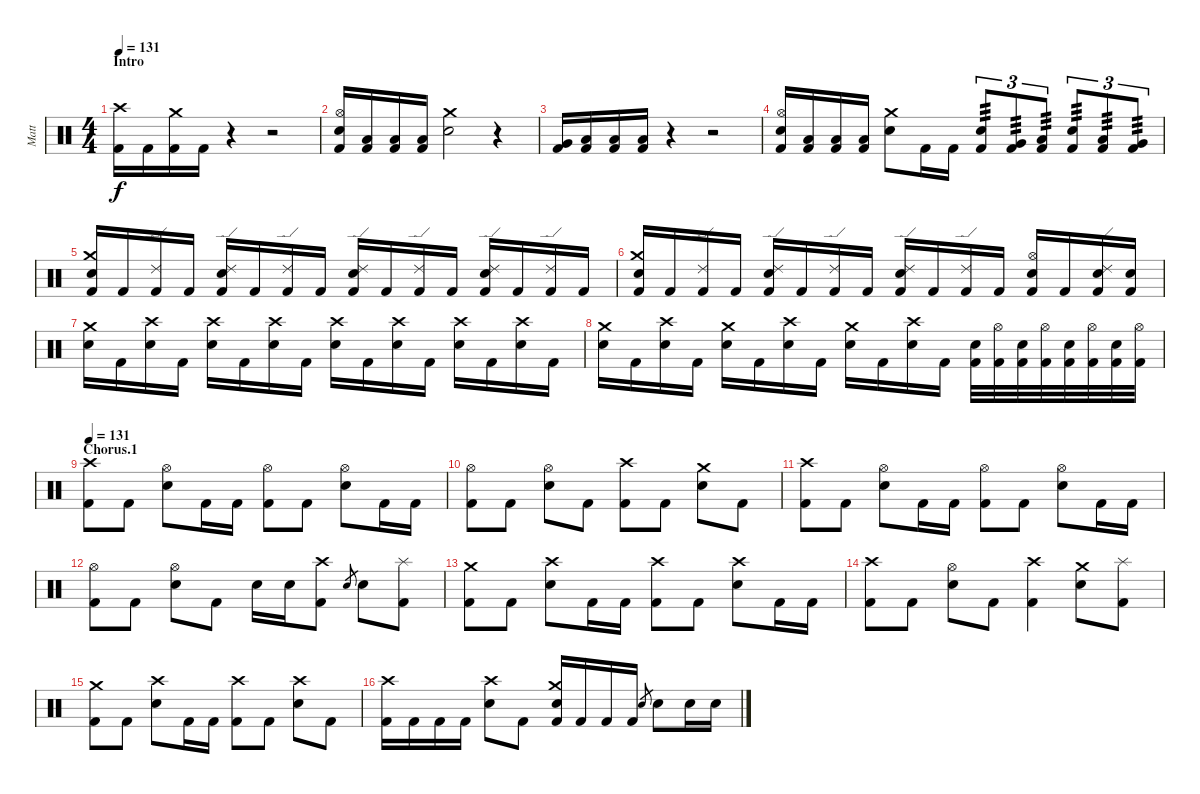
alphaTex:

\track ("Matt" "Matt") {instrument percussion}
\staff {score}
\articulation defaults
\ts (4 4)
\section ("" "Intro")
\tempo 131
\tempo 126
\tempo 131
\clef neutral
\ks c
("Crash high (hit)" "Kick (hit) 2").16{dy f} "Kick (hit) 2".16 ("Crash medium (hit)" "Kick (hit) 2").16 "Kick (hit) 2".16 r.4 r.2 |
("Hi-Hat (open)" "Electric Snare (hit)" "Kick (hit) 2").16 ("Low Floor Tom (hit)" "Kick (hit) 2").16 ("Low Floor Tom (hit)" "Kick (hit) 2").16 ("Low Floor Tom (hit)" "Kick (hit) 2").16 ("Crash medium (hit)" "Electric Snare (hit)").2 r.4 |
("Very Low Tom (hit)" "Kick (hit) 2").16 ("Low Floor Tom (hit)" "Kick (hit) 2").16 ("Low Floor Tom (hit)" "Kick (hit) 2").16 ("Low Floor Tom (hit)" "Kick (hit) 2").16 r.4 r.2 |
("Hi-Hat (open)" "Electric Snare (hit)" "Kick (hit) 2").16 ("Low Floor Tom (hit)" "Kick (hit) 2").16 ("Low Floor Tom (hit)" "Kick (hit) 2").16 ("Low Floor Tom (hit)" "Kick (hit) 2").16 ("Crash medium (hit)" "Electric Snare (hit)").8 "Kick (hit) 2".16 "Kick (hit) 2".16 ("Electric Snare (hit)" "Kick (hit) 2").8{tu (3 2) tp 3} ("Very Low Tom (hit)" "Kick (hit) 2").8{tu (3 2) tp 3} ("Low Floor Tom (hit)" "Kick (hit) 2").8{tu (3 2) tp 3} ("Electric Snare (hit)" "Kick (hit) 2").8{tu (3 2) tp 3} ("Low Tom (hit)" "Kick (hit) 2").8{tu (3 2) tp 3} ("Very Low Tom (hit)" "Kick (hit) 2").8{tu (3 2) tp 3} |
("Crash medium (hit)" "Electric Snare (hit)" "Kick (hit) 2").16 "Kick (hit) 2".16 ("Ride (edge) 2" "Kick (hit) 2").16 "Kick (hit) 2".16 ("Ride (edge) 2" "Electric Snare (hit)" "Kick (hit) 2").16 "Kick (hit) 2".16 ("Ride (edge) 2" "Kick (hit) 2").16 "Kick (hit) 2".16 ("Ride (edge) 2" "Electric Snare (hit)" "Kick (hit) 2").16 "Kick (hit) 2".16 ("Ride (edge) 2" "Kick (hit) 2").16 "Kick (hit) 2".16 ("Ride (edge) 2" "Electric Snare (hit)" "Kick (hit) 2").16 "Kick (hit) 2".16 ("Ride (edge) 2" "Kick (hit) 2").16 "Kick (hit) 2".16 |
("Crash medium (hit)" "Electric Snare (hit)" "Kick (hit) 2").16 "Kick (hit) 2".16 ("Ride (edge) 2" "Kick (hit) 2").16 "Kick (hit) 2".16 ("Ride (edge) 2" "Electric Snare (hit)" "Kick (hit) 2").16 "Kick (hit) 2".16 ("Ride (edge) 2" "Kick (hit) 2").16 "Kick (hit) 2".16 ("Ride (edge) 2" "Electric Snare (hit)" "Kick (hit) 2").16 "Kick (hit) 2".16 ("Ride (edge) 2" "Kick (hit) 2").16 "Kick (hit) 2".16 ("Hi-Hat (open)" "Electric Snare (hit)" "Kick (hit) 2").16 "Kick (hit) 2".16 ("Ride (edge) 2" "Electric Snare (hit)" "Kick (hit) 2").16 ("Electric Snare (hit)" "Kick (hit) 2").16 |
("Crash medium (hit)" "Electric Snare (hit)").16 "Kick (hit) 2".16 ("Crash high (hit)" "Electric Snare (hit)").16 "Kick (hit) 2".16 ("Crash high (hit)" "Electric Snare (hit)").16 "Kick (hit) 2".16 ("Crash high (hit)" "Electric Snare (hit)").16 "Kick (hit) 2".16 ("Crash high (hit)" "Electric Snare (hit)").16 "Kick (hit) 2".16 ("Crash high (hit)" "Electric Snare (hit)").16 "Kick (hit) 2".16 ("Crash high (hit)" "Electric Snare (hit)").16 "Kick (hit) 2".16 ("Crash high (hit)" "Electric Snare (hit)").16 "Kick (hit) 2".16 |
("Crash medium (hit)" "Electric Snare (hit)").16 "Kick (hit) 2".16 ("Crash high (hit)" "Electric Snare (hit)").16 "Kick (hit) 2".16 ("Crash medium (hit)" "Electric Snare (hit)").16 "Kick (hit) 2".16 ("Crash high (hit)" "Electric Snare (hit)").16 "Kick (hit) 2".16 ("Crash medium (hit)" "Electric Snare (hit)").16 "Kick (hit) 2".16 ("Crash high (hit)" "Electric Snare (hit)").16 "Kick (hit) 2".16 ("Electric Snare (hit)" "Kick (hit) 2").32 ("Hi-Hat (open)" "Kick (hit) 2").32 ("Electric Snare (hit)" "Kick (hit) 2").32 ("Hi-Hat (open)" "Kick (hit) 2").32 ("Electric Snare (hit)" "Kick (hit) 2").32 ("Hi-Hat (open)" "Kick (hit) 2").32 ("Electric Snare (hit)" "Kick (hit) 2").32 ("Hi-Hat (open)" "Kick (hit) 2").32 |
\section ("" "Chorus.1 ")
\tempo 131
("Crash high (hit)" "Kick (hit) 2").8 "Kick (hit) 2".8 ("Hi-Hat (open)" "Electric Snare (hit)").8 "Kick (hit) 2".16 "Kick (hit) 2".16 ("Hi-Hat (open)" "Kick (hit) 2").8 "Kick (hit) 2".8 ("Hi-Hat (open)" "Electric Snare (hit)").8 "Kick (hit) 2".16 "Kick (hit) 2".16 |
("Hi-Hat (open)" "Kick (hit) 2").8 "Kick (hit) 2".8 ("Hi-Hat (open)" "Electric Snare (hit)").8 "Kick (hit) 2".8 ("Crash high (hit)" "Kick (hit) 2").8 "Kick (hit) 2".8 ("Crash medium (hit)" "Electric Snare (hit)").8 "Kick (hit) 2".8 |
("Crash high (hit)" "Kick (hit) 2").8 "Kick (hit) 2".8 ("Hi-Hat (open)" "Electric Snare (hit)").8 "Kick (hit) 2".16 "Kick (hit) 2".16 ("Hi-Hat (open)" "Kick (hit) 2").8 "Kick (hit) 2".8 ("Hi-Hat (open)" "Electric Snare (hit)").8 "Kick (hit) 2".16 "Kick (hit) 2".16 |
("Hi-Hat (open)" "Kick (hit) 2").8 "Kick (hit) 2".8 ("Hi-Hat (open)" "Electric Snare (hit)").8 "Kick (hit) 2".8 "Electric Snare (hit)".16 "Electric Snare (hit)".16 ("Crash high (hit)" "Kick (hit) 2").8 "Electric Snare (hit)".8{gr} "Electric Snare (hit)".8 ("Splash (hit)" "Kick (hit) 2").8 |
("Crash medium (hit)" "Kick (hit) 2").8 "Kick (hit) 2".8 ("Crash high (hit)" "Electric Snare (hit)").8 "Kick (hit) 2".16 "Kick (hit) 2".16 ("Crash high (hit)" "Kick (hit) 2").8 "Kick (hit) 2".8 ("Crash high (hit)" "Electric Snare (hit)").8 "Kick (hit) 2".16 "Kick (hit) 2".16 |
("Crash high (hit)" "Kick (hit) 2").8 "Kick (hit) 2".8 ("Hi-Hat (open)" "Electric Snare (hit)").8 "Kick (hit) 2".8 ("Crash high (hit)" "Kick (hit) 2").4 ("Crash medium (hit)" "Electric Snare (hit)").8 ("Splash (hit)" "Kick (hit) 2").8 |
("Crash medium (hit)" "Kick (hit) 2").8 "Kick (hit) 2".8 ("Crash high (hit)" "Electric Snare (hit)").8 "Kick (hit) 2".16 "Kick (hit) 2".16 ("Crash high (hit)" "Kick (hit) 2").8 "Kick (hit) 2".8 ("Crash high (hit)" "Electric Snare (hit)").8 "Kick (hit) 2".8 |
("Crash high (hit)" "Kick (hit) 2").16 "Kick (hit) 2".16 "Kick (hit) 2".16 "Kick (hit) 2".16 ("Crash high (hit)" "Electric Snare (hit)").8 "Kick (hit) 2".8 ("Crash medium (hit)" "Electric Snare (hit)" "Kick (hit) 2").16 "Kick (hit) 2".16 "Kick (hit) 2".16 "Kick (hit) 2".16 "Electric Snare (hit)".8{gr} "Electric Snare (hit)".8 "Electric Snare (hit)".16 "Electric Snare (hit)".16
